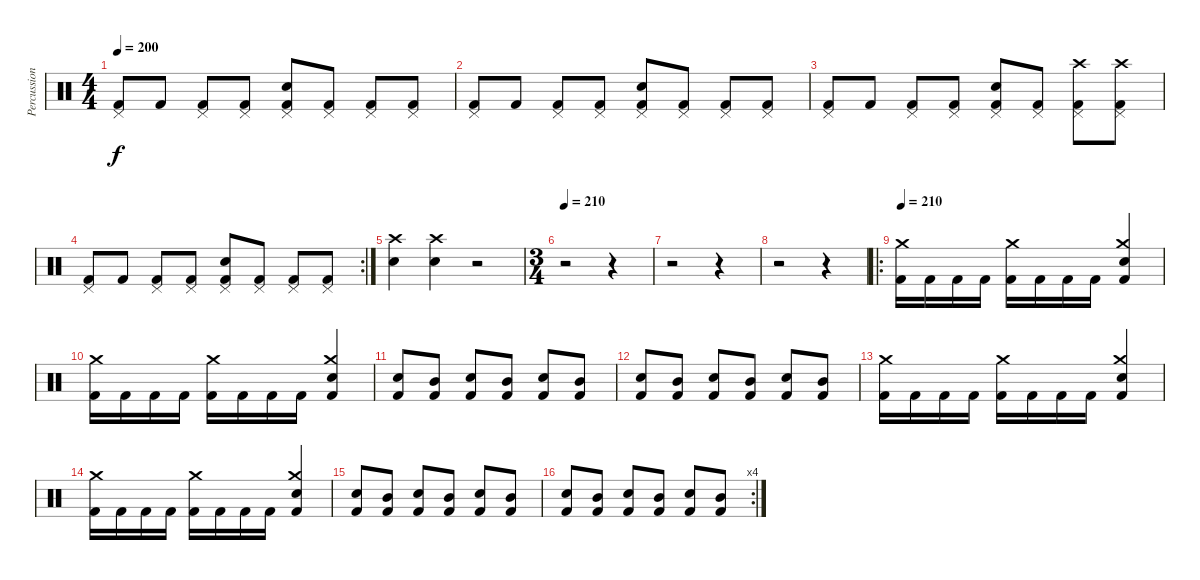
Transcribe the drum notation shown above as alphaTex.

\track ("Percussion" "Percussion") {instrument percussion}
\staff {score}
\articulation defaults
\ts (4 4)
\tempo 200
\clef neutral
\ks c
("Pedal Hi-Hat (hit)" "Kick (hit) 2").8{dy f} "Kick (hit) 2".8 ("Pedal Hi-Hat (hit)" "Kick (hit) 2").8 ("Pedal Hi-Hat (hit)" "Kick (hit) 2").8 ("Pedal Hi-Hat (hit)" "Snare (hit) 2" "Kick (hit) 2").8 ("Pedal Hi-Hat (hit)" "Kick (hit) 2").8 ("Pedal Hi-Hat (hit)" "Kick (hit) 2").8 ("Pedal Hi-Hat (hit)" "Kick (hit) 2").8 |
("Pedal Hi-Hat (hit)" "Kick (hit) 2").8 "Kick (hit) 2".8 ("Pedal Hi-Hat (hit)" "Kick (hit) 2").8 ("Pedal Hi-Hat (hit)" "Kick (hit) 2").8 ("Pedal Hi-Hat (hit)" "Snare (hit) 2" "Kick (hit) 2").8 ("Pedal Hi-Hat (hit)" "Kick (hit) 2").8 ("Pedal Hi-Hat (hit)" "Kick (hit) 2").8 ("Pedal Hi-Hat (hit)" "Kick (hit) 2").8 |
("Pedal Hi-Hat (hit)" "Kick (hit) 2").8 "Kick (hit) 2".8 ("Pedal Hi-Hat (hit)" "Kick (hit) 2").8 ("Pedal Hi-Hat (hit)" "Kick (hit) 2").8 ("Pedal Hi-Hat (hit)" "Snare (hit) 2" "Kick (hit) 2").8 ("Pedal Hi-Hat (hit)" "Kick (hit) 2").8 ("Pedal Hi-Hat (hit)" "Crash high (hit)" "Kick (hit) 2").8 ("Pedal Hi-Hat (hit)" "Crash high (hit)" "Kick (hit) 2").8 |
\rc 2
("Pedal Hi-Hat (hit)" "Kick (hit) 2").8 "Kick (hit) 2".8 ("Pedal Hi-Hat (hit)" "Kick (hit) 2").8 ("Pedal Hi-Hat (hit)" "Kick (hit) 2").8 ("Pedal Hi-Hat (hit)" "Snare (hit) 2" "Kick (hit) 2").8 ("Pedal Hi-Hat (hit)" "Kick (hit) 2").8 ("Pedal Hi-Hat (hit)" "Kick (hit) 2").8 ("Pedal Hi-Hat (hit)" "Kick (hit) 2").8 |
("Crash high (hit)" "Snare (hit) 2").4 ("Crash high (hit)" "Snare (hit) 2").4 r.2 |
\ts (3 4)
\tempo 210
r.2 r.4 |
r.2 r.4 |
r.2 r.4 |
\ro
\tempo 210
("Crash medium (hit)" "Kick (hit) 2").16 "Kick (hit) 2".16 "Kick (hit) 2".16 "Kick (hit) 2".16 ("Crash medium (hit)" "Kick (hit) 2").16 "Kick (hit) 2".16 "Kick (hit) 2".16 "Kick (hit) 2".16 ("Crash medium (hit)" "Electric Snare (hit)" "Kick (hit) 2").4 |
("Crash medium (hit)" "Kick (hit) 2").16 "Kick (hit) 2".16 "Kick (hit) 2".16 "Kick (hit) 2".16 ("Crash medium (hit)" "Kick (hit) 2").16 "Kick (hit) 2".16 "Kick (hit) 2".16 "Kick (hit) 2".16 ("Crash medium (hit)" "Electric Snare (hit)" "Kick (hit) 2").4 |
("Electric Snare (hit)" "Kick (hit) 2").8 ("Mid Tom (hit)" "Kick (hit) 2").8 ("Electric Snare (hit)" "Kick (hit) 2").8 ("Mid Tom (hit)" "Kick (hit) 2").8 ("Electric Snare (hit)" "Kick (hit) 2").8 ("Mid Tom (hit)" "Kick (hit) 2").8 |
("Electric Snare (hit)" "Kick (hit) 2").8 ("Mid Tom (hit)" "Kick (hit) 2").8 ("Electric Snare (hit)" "Kick (hit) 2").8 ("Mid Tom (hit)" "Kick (hit) 2").8 ("Electric Snare (hit)" "Kick (hit) 2").8 ("Mid Tom (hit)" "Kick (hit) 2").8 |
("Crash medium (hit)" "Kick (hit) 2").16 "Kick (hit) 2".16 "Kick (hit) 2".16 "Kick (hit) 2".16 ("Crash medium (hit)" "Kick (hit) 2").16 "Kick (hit) 2".16 "Kick (hit) 2".16 "Kick (hit) 2".16 ("Crash medium (hit)" "Electric Snare (hit)" "Kick (hit) 2").4 |
("Crash medium (hit)" "Kick (hit) 2").16 "Kick (hit) 2".16 "Kick (hit) 2".16 "Kick (hit) 2".16 ("Crash medium (hit)" "Kick (hit) 2").16 "Kick (hit) 2".16 "Kick (hit) 2".16 "Kick (hit) 2".16 ("Crash medium (hit)" "Electric Snare (hit)" "Kick (hit) 2").4 |
("Electric Snare (hit)" "Kick (hit) 2").8 ("Mid Tom (hit)" "Kick (hit) 2").8 ("Electric Snare (hit)" "Kick (hit) 2").8 ("Mid Tom (hit)" "Kick (hit) 2").8 ("Electric Snare (hit)" "Kick (hit) 2").8 ("Mid Tom (hit)" "Kick (hit) 2").8 |
\rc 4
("Electric Snare (hit)" "Kick (hit) 2").8 ("Mid Tom (hit)" "Kick (hit) 2").8 ("Electric Snare (hit)" "Kick (hit) 2").8 ("Mid Tom (hit)" "Kick (hit) 2").8 ("Electric Snare (hit)" "Kick (hit) 2").8 ("Mid Tom (hit)" "Kick (hit) 2").8
